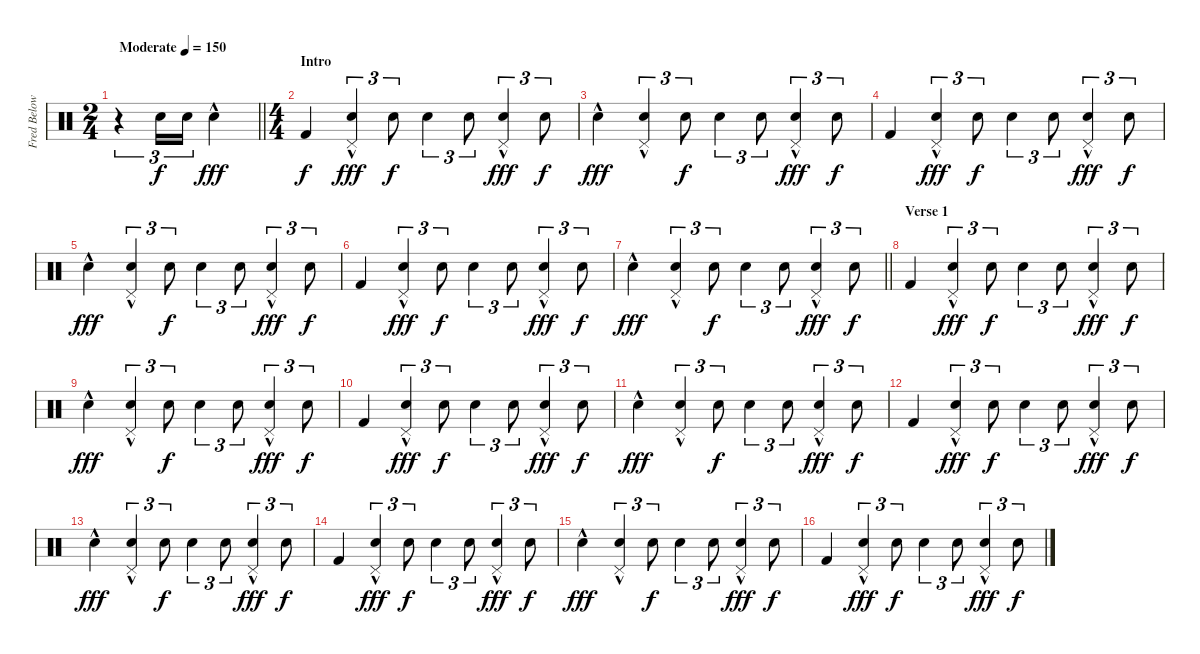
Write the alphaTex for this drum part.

\track ("Fred Below" "Fred Below") {instrument percussion}
\staff {score}
\articulation defaults
\ts (2 4)
\tempo (150 "Moderate")
\clef neutral
\barLineRight lightlight
\ks c
r.4{tu (3 2) dy f} "Snare (hit) 2".16{tu (3 2)} "Snare (hit) 2".16{tu (3 2)} "Hand Clap (hit)"{hac}.4{dy fff} |
\ts (4 4)
\section ("" "Intro")
"Kick (hit) 2".4{dy f} ("Snare (hit) 2"{hac} "Pedal Hi-Hat (hit)").4{tu (3 2) dy fff} "Snare (hit) 2".8{tu (3 2) dy f} "Electric Snare (hit)".4{tu (3 2)} "Snare (hit) 2".8{tu (3 2)} ("Hand Clap (hit)"{hac} "Pedal Hi-Hat (hit)").4{tu (3 2) dy fff} "Snare (hit) 2".8{tu (3 2) dy f} |
"Snare (hit) 2"{hac}.4{dy fff} ("Snare (hit) 2"{hac} "Pedal Hi-Hat (hit)").4{tu (3 2)} "Snare (hit) 2".8{tu (3 2) dy f} "Electric Snare (hit)".4{tu (3 2)} "Snare (hit) 2".8{tu (3 2)} ("Hand Clap (hit)"{hac} "Pedal Hi-Hat (hit)").4{tu (3 2) dy fff} "Snare (hit) 2".8{tu (3 2) dy f} |
"Kick (hit) 2".4 ("Snare (hit) 2"{hac} "Pedal Hi-Hat (hit)").4{tu (3 2) dy fff} "Snare (hit) 2".8{tu (3 2) dy f} "Electric Snare (hit)".4{tu (3 2)} "Snare (hit) 2".8{tu (3 2)} ("Hand Clap (hit)"{hac} "Pedal Hi-Hat (hit)").4{tu (3 2) dy fff} "Snare (hit) 2".8{tu (3 2) dy f} |
"Snare (hit) 2"{hac}.4{dy fff} ("Snare (hit) 2"{hac} "Pedal Hi-Hat (hit)").4{tu (3 2)} "Snare (hit) 2".8{tu (3 2) dy f} "Electric Snare (hit)".4{tu (3 2)} "Snare (hit) 2".8{tu (3 2)} ("Hand Clap (hit)"{hac} "Pedal Hi-Hat (hit)").4{tu (3 2) dy fff} "Snare (hit) 2".8{tu (3 2) dy f} |
"Kick (hit) 2".4 ("Snare (hit) 2"{hac} "Pedal Hi-Hat (hit)").4{tu (3 2) dy fff} "Snare (hit) 2".8{tu (3 2) dy f} "Electric Snare (hit)".4{tu (3 2)} "Snare (hit) 2".8{tu (3 2)} ("Hand Clap (hit)"{hac} "Pedal Hi-Hat (hit)").4{tu (3 2) dy fff} "Snare (hit) 2".8{tu (3 2) dy f} |
\barLineRight lightlight "Snare (hit) 2"{hac}.4{dy fff}
("Snare (hit) 2"{hac} "Pedal Hi-Hat (hit)").4{tu (3 2)} "Snare (hit) 2".8{tu (3 2) dy f} "Electric Snare (hit)".4{tu (3 2)} "Snare (hit) 2".8{tu (3 2)} ("Hand Clap (hit)"{hac} "Pedal Hi-Hat (hit)").4{tu (3 2) dy fff} "Snare (hit) 2".8{tu (3 2) dy f} |
\section ("" "Verse 1")
"Kick (hit) 2".4 ("Snare (hit) 2"{hac} "Pedal Hi-Hat (hit)").4{tu (3 2) dy fff} "Snare (hit) 2".8{tu (3 2) dy f} "Electric Snare (hit)".4{tu (3 2)} "Snare (hit) 2".8{tu (3 2)} ("Hand Clap (hit)"{hac} "Pedal Hi-Hat (hit)").4{tu (3 2) dy fff} "Snare (hit) 2".8{tu (3 2) dy f} |
"Snare (hit) 2"{hac}.4{dy fff} ("Snare (hit) 2"{hac} "Pedal Hi-Hat (hit)").4{tu (3 2)} "Snare (hit) 2".8{tu (3 2) dy f} "Electric Snare (hit)".4{tu (3 2)} "Snare (hit) 2".8{tu (3 2)} ("Hand Clap (hit)"{hac} "Pedal Hi-Hat (hit)").4{tu (3 2) dy fff} "Snare (hit) 2".8{tu (3 2) dy f} |
"Kick (hit) 2".4 ("Snare (hit) 2"{hac} "Pedal Hi-Hat (hit)").4{tu (3 2) dy fff} "Snare (hit) 2".8{tu (3 2) dy f} "Electric Snare (hit)".4{tu (3 2)} "Snare (hit) 2".8{tu (3 2)} ("Hand Clap (hit)"{hac} "Pedal Hi-Hat (hit)").4{tu (3 2) dy fff} "Snare (hit) 2".8{tu (3 2) dy f} |
"Snare (hit) 2"{hac}.4{dy fff} ("Snare (hit) 2"{hac} "Pedal Hi-Hat (hit)").4{tu (3 2)} "Snare (hit) 2".8{tu (3 2) dy f} "Electric Snare (hit)".4{tu (3 2)} "Snare (hit) 2".8{tu (3 2)} ("Hand Clap (hit)"{hac} "Pedal Hi-Hat (hit)").4{tu (3 2) dy fff} "Snare (hit) 2".8{tu (3 2) dy f} |
"Kick (hit) 2".4 ("Snare (hit) 2"{hac} "Pedal Hi-Hat (hit)").4{tu (3 2) dy fff} "Snare (hit) 2".8{tu (3 2) dy f} "Electric Snare (hit)".4{tu (3 2)} "Snare (hit) 2".8{tu (3 2)} ("Hand Clap (hit)"{hac} "Pedal Hi-Hat (hit)").4{tu (3 2) dy fff} "Snare (hit) 2".8{tu (3 2) dy f} |
"Snare (hit) 2"{hac}.4{dy fff} ("Snare (hit) 2"{hac} "Pedal Hi-Hat (hit)").4{tu (3 2)} "Snare (hit) 2".8{tu (3 2) dy f} "Electric Snare (hit)".4{tu (3 2)} "Snare (hit) 2".8{tu (3 2)} ("Hand Clap (hit)"{hac} "Pedal Hi-Hat (hit)").4{tu (3 2) dy fff} "Snare (hit) 2".8{tu (3 2) dy f} |
"Kick (hit) 2".4 ("Snare (hit) 2"{hac} "Pedal Hi-Hat (hit)").4{tu (3 2) dy fff} "Snare (hit) 2".8{tu (3 2) dy f} "Electric Snare (hit)".4{tu (3 2)} "Snare (hit) 2".8{tu (3 2)} ("Hand Clap (hit)"{hac} "Pedal Hi-Hat (hit)").4{tu (3 2) dy fff} "Snare (hit) 2".8{tu (3 2) dy f} |
"Snare (hit) 2"{hac}.4{dy fff} ("Snare (hit) 2"{hac} "Pedal Hi-Hat (hit)").4{tu (3 2)} "Snare (hit) 2".8{tu (3 2) dy f} "Electric Snare (hit)".4{tu (3 2)} "Snare (hit) 2".8{tu (3 2)} ("Hand Clap (hit)"{hac} "Pedal Hi-Hat (hit)").4{tu (3 2) dy fff} "Snare (hit) 2".8{tu (3 2) dy f} |
"Kick (hit) 2".4 ("Snare (hit) 2"{hac} "Pedal Hi-Hat (hit)").4{tu (3 2) dy fff} "Snare (hit) 2".8{tu (3 2) dy f} "Electric Snare (hit)".4{tu (3 2)} "Snare (hit) 2".8{tu (3 2)} ("Hand Clap (hit)"{hac} "Pedal Hi-Hat (hit)").4{tu (3 2) dy fff} "Snare (hit) 2".8{tu (3 2) dy f}
